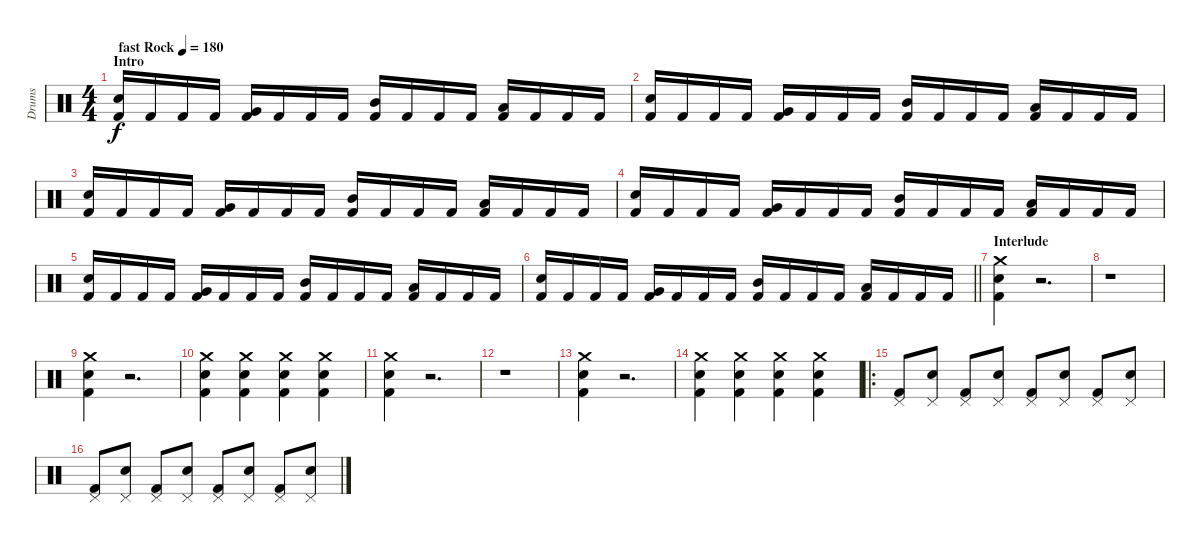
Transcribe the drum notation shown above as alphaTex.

\track ("Drums" "Drums") {instrument percussion}
\staff {score}
\articulation defaults
\ts (4 4)
\section ("" "Intro")
\tempo (180 "fast Rock")
\clef neutral
\ks c
("Electric Snare (hit)" "Kick (hit) 2").16{dy f} "Kick (hit) 2".16 "Kick (hit) 2".16 "Kick (hit) 2".16 ("Very Low Tom (hit)" "Kick (hit) 2").16 "Kick (hit) 2".16 "Kick (hit) 2".16 "Kick (hit) 2".16 ("Mid Tom (hit)" "Kick (hit) 2").16 "Kick (hit) 2".16 "Kick (hit) 2".16 "Kick (hit) 2".16 ("Low Tom (hit)" "Kick (hit) 2").16 "Kick (hit) 2".16 "Kick (hit) 2".16 "Kick (hit) 2".16 |
("Electric Snare (hit)" "Kick (hit) 2").16 "Kick (hit) 2".16 "Kick (hit) 2".16 "Kick (hit) 2".16 ("Very Low Tom (hit)" "Kick (hit) 2").16 "Kick (hit) 2".16 "Kick (hit) 2".16 "Kick (hit) 2".16 ("Mid Tom (hit)" "Kick (hit) 2").16 "Kick (hit) 2".16 "Kick (hit) 2".16 "Kick (hit) 2".16 ("Low Tom (hit)" "Kick (hit) 2").16 "Kick (hit) 2".16 "Kick (hit) 2".16 "Kick (hit) 2".16 |
("Electric Snare (hit)" "Kick (hit) 2").16 "Kick (hit) 2".16 "Kick (hit) 2".16 "Kick (hit) 2".16 ("Very Low Tom (hit)" "Kick (hit) 2").16 "Kick (hit) 2".16 "Kick (hit) 2".16 "Kick (hit) 2".16 ("Mid Tom (hit)" "Kick (hit) 2").16 "Kick (hit) 2".16 "Kick (hit) 2".16 "Kick (hit) 2".16 ("Low Tom (hit)" "Kick (hit) 2").16 "Kick (hit) 2".16 "Kick (hit) 2".16 "Kick (hit) 2".16 |
("Electric Snare (hit)" "Kick (hit) 2").16 "Kick (hit) 2".16 "Kick (hit) 2".16 "Kick (hit) 2".16 ("Very Low Tom (hit)" "Kick (hit) 2").16 "Kick (hit) 2".16 "Kick (hit) 2".16 "Kick (hit) 2".16 ("Mid Tom (hit)" "Kick (hit) 2").16 "Kick (hit) 2".16 "Kick (hit) 2".16 "Kick (hit) 2".16 ("Low Tom (hit)" "Kick (hit) 2").16 "Kick (hit) 2".16 "Kick (hit) 2".16 "Kick (hit) 2".16 |
("Electric Snare (hit)" "Kick (hit) 2").16 "Kick (hit) 2".16 "Kick (hit) 2".16 "Kick (hit) 2".16 ("Very Low Tom (hit)" "Kick (hit) 2").16 "Kick (hit) 2".16 "Kick (hit) 2".16 "Kick (hit) 2".16 ("Mid Tom (hit)" "Kick (hit) 2").16 "Kick (hit) 2".16 "Kick (hit) 2".16 "Kick (hit) 2".16 ("Low Tom (hit)" "Kick (hit) 2").16 "Kick (hit) 2".16 "Kick (hit) 2".16 "Kick (hit) 2".16 |
\barLineRight lightlight
("Electric Snare (hit)" "Kick (hit) 2").16 "Kick (hit) 2".16 "Kick (hit) 2".16 "Kick (hit) 2".16 ("Very Low Tom (hit)" "Kick (hit) 2").16 "Kick (hit) 2".16 "Kick (hit) 2".16 "Kick (hit) 2".16 ("Mid Tom (hit)" "Kick (hit) 2").16 "Kick (hit) 2".16 "Kick (hit) 2".16 "Kick (hit) 2".16 ("Low Tom (hit)" "Kick (hit) 2").16 "Kick (hit) 2".16 "Kick (hit) 2".16 "Kick (hit) 2".16 |
\section ("" "Interlude")
("Crash medium (hit)" "Electric Snare (hit)" "Kick (hit) 2").4 r.2{d} |
r.1 |
("Crash medium (hit)" "Electric Snare (hit)" "Kick (hit) 2").4 r.2{d} |
("Crash medium (hit)" "Electric Snare (hit)" "Kick (hit) 2").4 ("Crash medium (hit)" "Electric Snare (hit)" "Kick (hit) 2").4 ("Crash medium (hit)" "Electric Snare (hit)" "Kick (hit) 2").4 ("Crash medium (hit)" "Electric Snare (hit)" "Kick (hit) 2").4 |
("Crash medium (hit)" "Electric Snare (hit)" "Kick (hit) 2").4 r.2{d} |
r.1 |
("Crash medium (hit)" "Electric Snare (hit)" "Kick (hit) 2").4 r.2{d} |
("Crash medium (hit)" "Electric Snare (hit)" "Kick (hit) 2").4 ("Crash medium (hit)" "Electric Snare (hit)" "Kick (hit) 2").4 ("Crash medium (hit)" "Electric Snare (hit)" "Kick (hit) 2").4 ("Crash medium (hit)" "Electric Snare (hit)" "Kick (hit) 2").4 |
\ro
("Kick (hit) 2" "Pedal Hi-Hat (hit)").8 ("Snare (hit) 2" "Pedal Hi-Hat (hit)").8 ("Kick (hit) 2" "Pedal Hi-Hat (hit)").8 ("Snare (hit) 2" "Pedal Hi-Hat (hit)").8 ("Kick (hit) 2" "Pedal Hi-Hat (hit)").8 ("Snare (hit) 2" "Pedal Hi-Hat (hit)").8 ("Kick (hit) 2" "Pedal Hi-Hat (hit)").8 ("Snare (hit) 2" "Pedal Hi-Hat (hit)").8 |
("Kick (hit) 2" "Pedal Hi-Hat (hit)").8 ("Snare (hit) 2" "Pedal Hi-Hat (hit)").8 ("Kick (hit) 2" "Pedal Hi-Hat (hit)").8 ("Snare (hit) 2" "Pedal Hi-Hat (hit)").8 ("Kick (hit) 2" "Pedal Hi-Hat (hit)").8 ("Snare (hit) 2" "Pedal Hi-Hat (hit)").8 ("Kick (hit) 2" "Pedal Hi-Hat (hit)").8 ("Snare (hit) 2" "Pedal Hi-Hat (hit)").8
